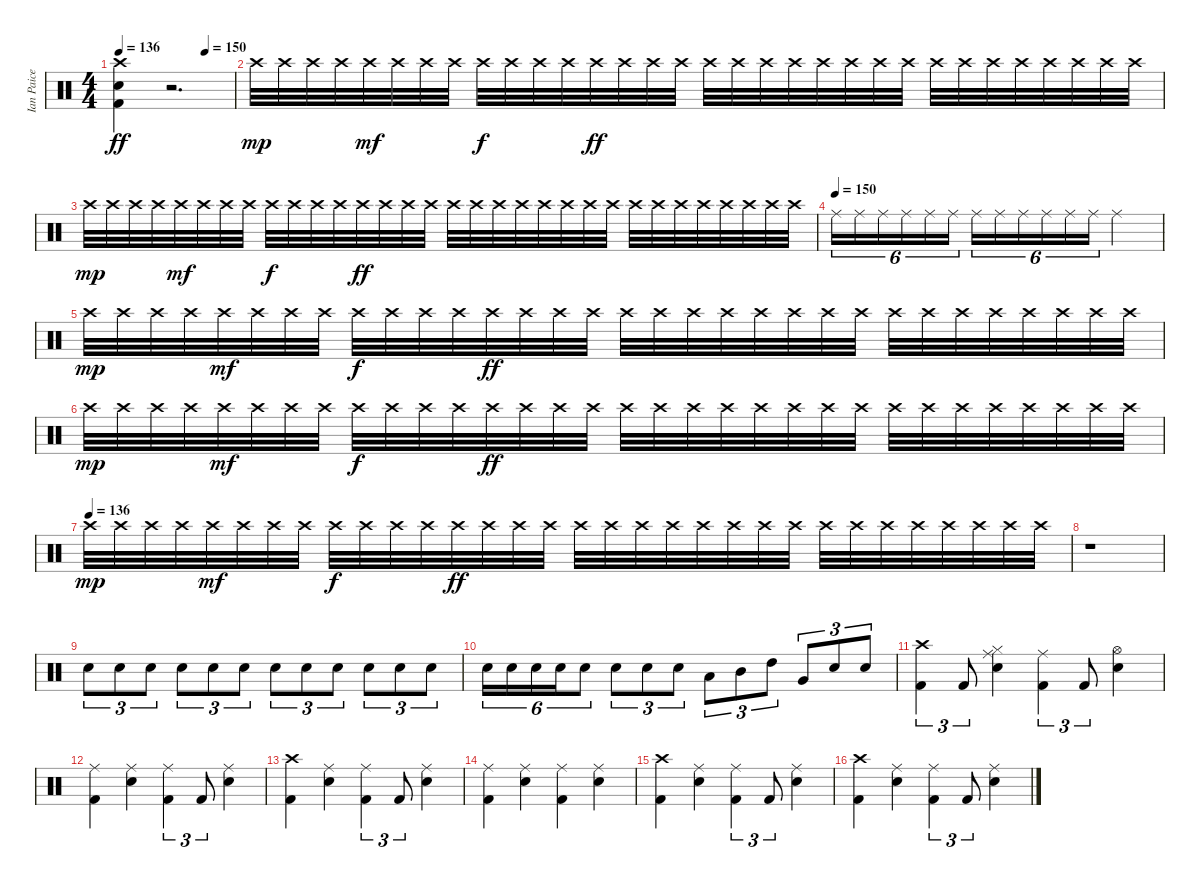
\track ("Ian Paice" "Ian Paice") {instrument percussion}
\staff {score}
\articulation defaults
\ts (4 4)
\tempo 136
\tempo (150 0.75)
\tempo 136
\clef neutral
\ks c
("Crash high (hit)" "Electric Snare (hit)" "Kick (hit) 2").4{dy ff volume 8} r.2{d} |
"Crash high (hit)".32{dy mp} "Crash high (hit)".32 "Crash high (hit)".32 "Crash high (hit)".32 "Crash high (hit)".32{dy mf} "Crash high (hit)".32 "Crash high (hit)".32 "Crash high (hit)".32 "Crash high (hit)".32{dy f} "Crash high (hit)".32 "Crash high (hit)".32 "Crash high (hit)".32 "Crash high (hit)".32{dy ff} "Crash high (hit)".32 "Crash high (hit)".32 "Crash high (hit)".32 "Crash high (hit)".32 "Crash high (hit)".32 "Crash high (hit)".32 "Crash high (hit)".32 "Crash high (hit)".32 "Crash high (hit)".32 "Crash high (hit)".32 "Crash high (hit)".32 "Crash high (hit)".32 "Crash high (hit)".32 "Crash high (hit)".32 "Crash high (hit)".32 "Crash high (hit)".32 "Crash high (hit)".32 "Crash high (hit)".32 "Crash high (hit)".32 |
"Crash high (hit)".32{dy mp} "Crash high (hit)".32 "Crash high (hit)".32 "Crash high (hit)".32 "Crash high (hit)".32{dy mf} "Crash high (hit)".32 "Crash high (hit)".32 "Crash high (hit)".32 "Crash high (hit)".32{dy f} "Crash high (hit)".32 "Crash high (hit)".32 "Crash high (hit)".32 "Crash high (hit)".32{dy ff} "Crash high (hit)".32 "Crash high (hit)".32 "Crash high (hit)".32 "Crash high (hit)".32 "Crash high (hit)".32 "Crash high (hit)".32 "Crash high (hit)".32 "Crash high (hit)".32 "Crash high (hit)".32 "Crash high (hit)".32 "Crash high (hit)".32 "Crash high (hit)".32 "Crash high (hit)".32 "Crash high (hit)".32 "Crash high (hit)".32 "Crash high (hit)".32 "Crash high (hit)".32 "Crash high (hit)".32 "Crash high (hit)".32 |
\tempo (150)
"Ride (middle)".16{tu (6 4)} "Ride (middle)".16{tu (6 4)} "Ride (middle)".16{tu (6 4)} "Ride (middle)".16{tu (6 4)} "Ride (middle)".16{tu (6 4)} "Ride (middle)".16{tu (6 4)} "Ride (middle)".16{tu (6 4)} "Ride (middle)".16{tu (6 4)} "Ride (middle)".16{tu (6 4)} "Ride (middle)".16{tu (6 4)} "Ride (middle)".16{tu (6 4)} "Ride (middle)".16{tu (6 4)} "Ride (middle)".2 |
"Crash high (hit)".32{dy mp volume 8} "Crash high (hit)".32 "Crash high (hit)".32 "Crash high (hit)".32 "Crash high (hit)".32{dy mf} "Crash high (hit)".32 "Crash high (hit)".32 "Crash high (hit)".32 "Crash high (hit)".32{dy f} "Crash high (hit)".32 "Crash high (hit)".32 "Crash high (hit)".32 "Crash high (hit)".32{dy ff} "Crash high (hit)".32 "Crash high (hit)".32 "Crash high (hit)".32 "Crash high (hit)".32 "Crash high (hit)".32 "Crash high (hit)".32 "Crash high (hit)".32 "Crash high (hit)".32 "Crash high (hit)".32 "Crash high (hit)".32 "Crash high (hit)".32 "Crash high (hit)".32 "Crash high (hit)".32 "Crash high (hit)".32 "Crash high (hit)".32 "Crash high (hit)".32 "Crash high (hit)".32 "Crash high (hit)".32 "Crash high (hit)".32 |
"Crash high (hit)".32{dy mp} "Crash high (hit)".32 "Crash high (hit)".32 "Crash high (hit)".32 "Crash high (hit)".32{dy mf} "Crash high (hit)".32 "Crash high (hit)".32 "Crash high (hit)".32 "Crash high (hit)".32{dy f} "Crash high (hit)".32 "Crash high (hit)".32 "Crash high (hit)".32 "Crash high (hit)".32{dy ff} "Crash high (hit)".32 "Crash high (hit)".32 "Crash high (hit)".32 "Crash high (hit)".32 "Crash high (hit)".32 "Crash high (hit)".32 "Crash high (hit)".32 "Crash high (hit)".32 "Crash high (hit)".32 "Crash high (hit)".32 "Crash high (hit)".32 "Crash high (hit)".32 "Crash high (hit)".32 "Crash high (hit)".32 "Crash high (hit)".32 "Crash high (hit)".32 "Crash high (hit)".32 "Crash high (hit)".32 "Crash high (hit)".32 |
\tempo (136)
"Crash high (hit)".32{dy mp} "Crash high (hit)".32 "Crash high (hit)".32 "Crash high (hit)".32 "Crash high (hit)".32{dy mf} "Crash high (hit)".32 "Crash high (hit)".32 "Crash high (hit)".32 "Crash high (hit)".32{dy f} "Crash high (hit)".32 "Crash high (hit)".32 "Crash high (hit)".32 "Crash high (hit)".32{dy ff} "Crash high (hit)".32 "Crash high (hit)".32 "Crash high (hit)".32 "Crash high (hit)".32 "Crash high (hit)".32 "Crash high (hit)".32 "Crash high (hit)".32 "Crash high (hit)".32 "Crash high (hit)".32 "Crash high (hit)".32 "Crash high (hit)".32 "Crash high (hit)".32 "Crash high (hit)".32 "Crash high (hit)".32 "Crash high (hit)".32 "Crash high (hit)".32 "Crash high (hit)".32 "Crash high (hit)".32 "Crash high (hit)".32 |
r.1 |
"Electric Snare (hit)".8{tu (3 2) volume 12} "Electric Snare (hit)".8{tu (3 2)} "Electric Snare (hit)".8{tu (3 2)} "Electric Snare (hit)".8{tu (3 2)} "Electric Snare (hit)".8{tu (3 2)} "Electric Snare (hit)".8{tu (3 2)} "Electric Snare (hit)".8{tu (3 2)} "Electric Snare (hit)".8{tu (3 2)} "Electric Snare (hit)".8{tu (3 2)} "Electric Snare (hit)".8{tu (3 2)} "Electric Snare (hit)".8{tu (3 2)} "Electric Snare (hit)".8{tu (3 2)} |
"Electric Snare (hit)".16{tu (6 4)} "Electric Snare (hit)".16{tu (6 4)} "Electric Snare (hit)".16{tu (6 4)} "Electric Snare (hit)".16{tu (6 4)} "Electric Snare (hit)".8{tu (6 4)} "Electric Snare (hit)".8{tu (3 2)} "Electric Snare (hit)".8{tu (3 2)} "Electric Snare (hit)".8{tu (3 2)} "Low Tom (hit)".8{tu (3 2)} "Mid Tom (hit)".8{tu (3 2)} "High Tom (hit)".8{tu (3 2)} "Very Low Tom (hit)".8{tu (3 2)} "Electric Snare (hit)".8{tu (3 2)} "Electric Snare (hit)".8{tu (3 2)} |
("Crash high (hit)" "Kick (hit) 2").4{tu (3 2)} "Kick (hit) 2".8{tu (3 2)} ("Ride (middle)" "Hi-Hat (closed)" "Electric Snare (hit)").4 ("Ride (middle)" "Kick (hit) 2").4{tu (3 2)} "Kick (hit) 2".8{tu (3 2)} ("Hi-Hat (open)" "Electric Snare (hit)").4 |
("Ride (middle)" "Kick (hit) 2").4 ("Ride (middle)" "Electric Snare (hit)").4 ("Ride (middle)" "Kick (hit) 2").4{tu (3 2)} "Kick (hit) 2".8{tu (3 2)} ("Ride (middle)" "Electric Snare (hit)").4 |
("Crash high (hit)" "Kick (hit) 2").4 ("Ride (middle)" "Electric Snare (hit)").4 ("Ride (middle)" "Kick (hit) 2").4{tu (3 2)} "Kick (hit) 2".8{tu (3 2)} ("Ride (middle)" "Electric Snare (hit)").4 |
("Ride (middle)" "Kick (hit) 2").4 ("Ride (middle)" "Electric Snare (hit)").4 ("Ride (middle)" "Kick (hit) 2").4 ("Ride (middle)" "Electric Snare (hit)").4 |
("Crash high (hit)" "Kick (hit) 2").4 ("Ride (middle)" "Electric Snare (hit)").4 ("Ride (middle)" "Kick (hit) 2").4{tu (3 2)} "Kick (hit) 2".8{tu (3 2)} ("Ride (middle)" "Electric Snare (hit)").4 |
("Crash high (hit)" "Kick (hit) 2").4 ("Ride (middle)" "Electric Snare (hit)").4 ("Ride (middle)" "Kick (hit) 2").4{tu (3 2)} "Kick (hit) 2".8{tu (3 2)} ("Ride (middle)" "Electric Snare (hit)").4
